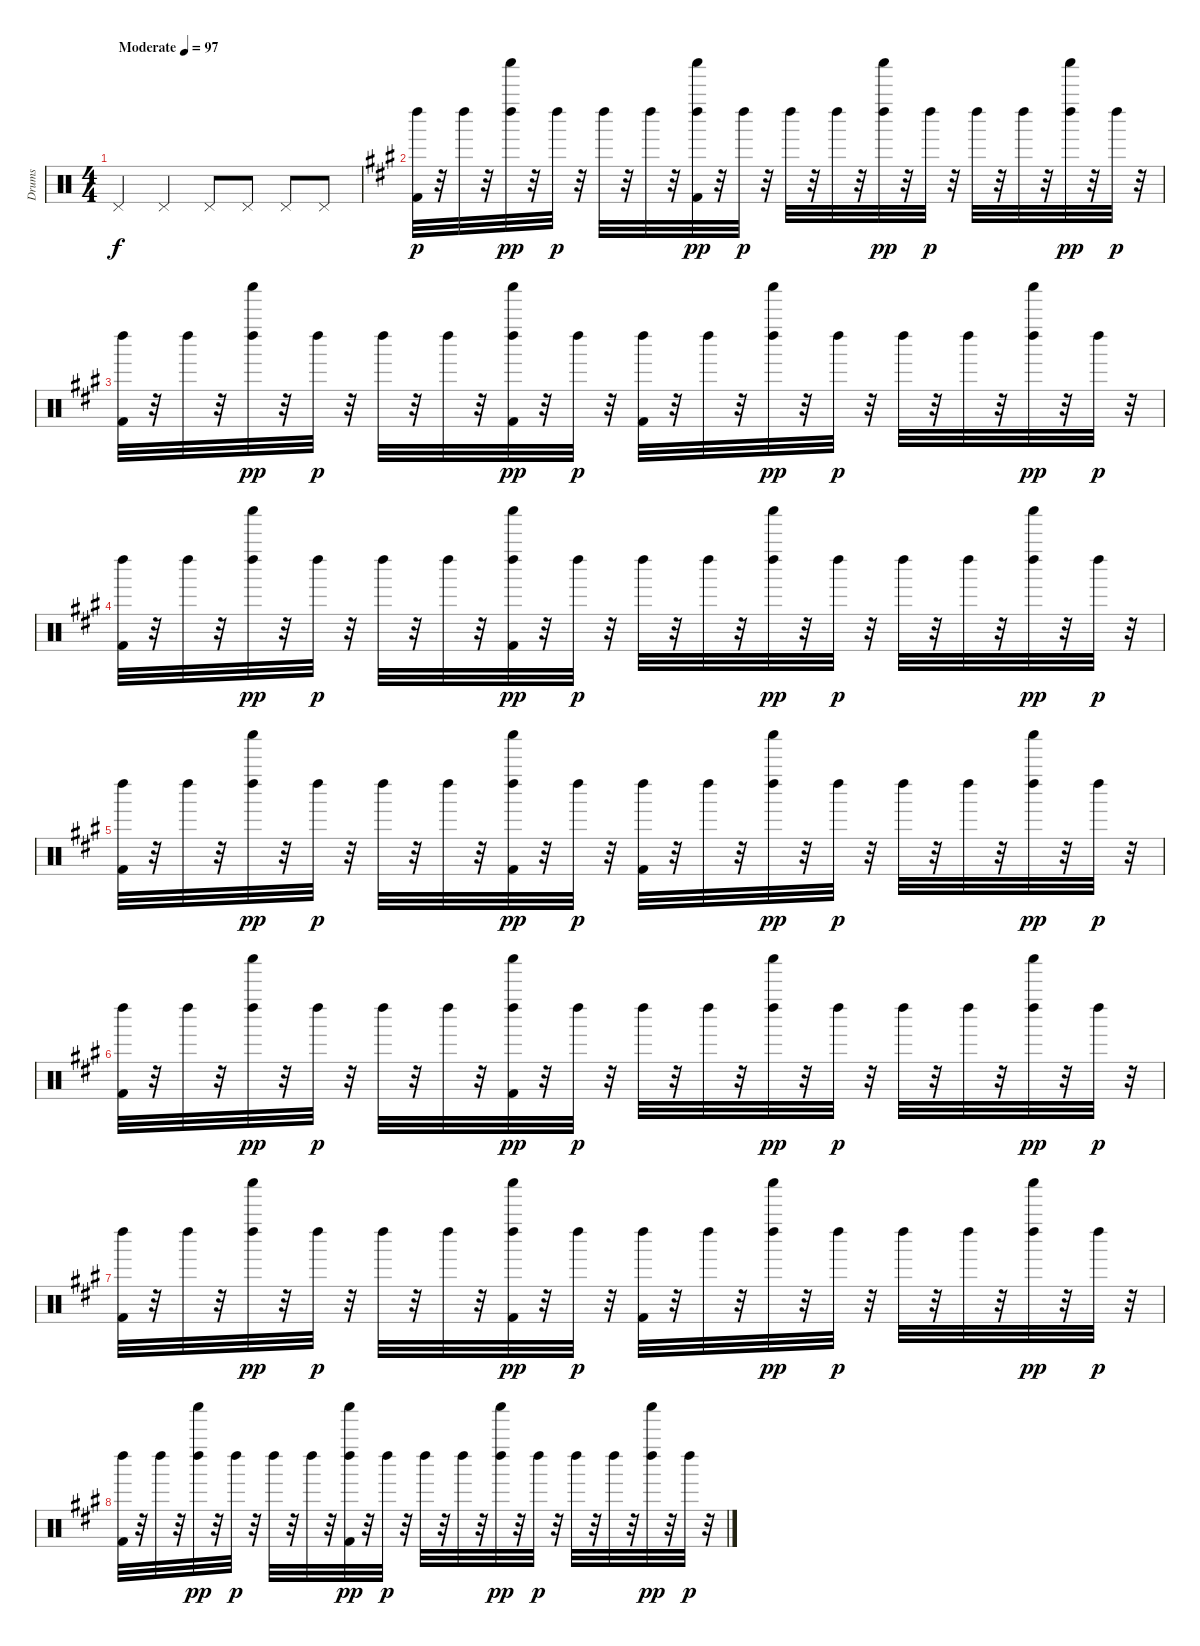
\track ("Drums" "Drums") {instrument percussion}
\staff {score}
\articulation defaults
\ts (4 4)
\tempo (97 "Moderate")
\clef neutral
\ks c "Pedal Hi-Hat (hit)".4{dy f} "Pedal Hi-Hat (hit)".4 "Pedal Hi-Hat (hit)".8 "Pedal Hi-Hat (hit)".8 "Pedal Hi-Hat (hit)".8 "Pedal Hi-Hat (hit)".8
|
\ks a
("Kick (hit) 2" "Left Maraca (hit)").32{dy p} r.32 "Left Maraca (hit)".32 r.32 ("Shaker (hit)" "Left Maraca (hit)").32{dy pp} r.32 "Left Maraca (hit)".32{dy p} r.32 "Left Maraca (hit)".32 r.32 "Left Maraca (hit)".32 r.32 ("Kick (hit) 2" "Shaker (hit)" "Left Maraca (hit)").32{dy pp} r.32 "Left Maraca (hit)".32{dy p} r.32 "Left Maraca (hit)".32 r.32 "Left Maraca (hit)".32 r.32 ("Shaker (hit)" "Left Maraca (hit)").32{dy pp} r.32 "Left Maraca (hit)".32{dy p} r.32 "Left Maraca (hit)".32 r.32 "Left Maraca (hit)".32 r.32 ("Shaker (hit)" "Left Maraca (hit)").32{dy pp} r.32 "Left Maraca (hit)".32{dy p} r.32 |
("Kick (hit) 2" "Left Maraca (hit)").32 r.32 "Left Maraca (hit)".32 r.32 ("Shaker (hit)" "Left Maraca (hit)").32{dy pp} r.32 "Left Maraca (hit)".32{dy p} r.32 "Left Maraca (hit)".32 r.32 "Left Maraca (hit)".32 r.32 ("Kick (hit) 2" "Shaker (hit)" "Left Maraca (hit)").32{dy pp} r.32 "Left Maraca (hit)".32{dy p} r.32 ("Kick (hit) 2" "Left Maraca (hit)").32 r.32 "Left Maraca (hit)".32 r.32 ("Shaker (hit)" "Left Maraca (hit)").32{dy pp} r.32 "Left Maraca (hit)".32{dy p} r.32 "Left Maraca (hit)".32 r.32 "Left Maraca (hit)".32 r.32 ("Shaker (hit)" "Left Maraca (hit)").32{dy pp} r.32 "Left Maraca (hit)".32{dy p} r.32 |
("Kick (hit) 2" "Left Maraca (hit)").32 r.32 "Left Maraca (hit)".32 r.32 ("Shaker (hit)" "Left Maraca (hit)").32{dy pp} r.32 "Left Maraca (hit)".32{dy p} r.32 "Left Maraca (hit)".32 r.32 "Left Maraca (hit)".32 r.32 ("Kick (hit) 2" "Shaker (hit)" "Left Maraca (hit)").32{dy pp} r.32 "Left Maraca (hit)".32{dy p} r.32 "Left Maraca (hit)".32 r.32 "Left Maraca (hit)".32 r.32 ("Shaker (hit)" "Left Maraca (hit)").32{dy pp} r.32 "Left Maraca (hit)".32{dy p} r.32 "Left Maraca (hit)".32 r.32 "Left Maraca (hit)".32 r.32 ("Shaker (hit)" "Left Maraca (hit)").32{dy pp} r.32 "Left Maraca (hit)".32{dy p} r.32 |
("Kick (hit) 2" "Left Maraca (hit)").32 r.32 "Left Maraca (hit)".32 r.32 ("Shaker (hit)" "Left Maraca (hit)").32{dy pp} r.32 "Left Maraca (hit)".32{dy p} r.32 "Left Maraca (hit)".32 r.32 "Left Maraca (hit)".32 r.32 ("Kick (hit) 2" "Shaker (hit)" "Left Maraca (hit)").32{dy pp} r.32 "Left Maraca (hit)".32{dy p} r.32 ("Kick (hit) 2" "Left Maraca (hit)").32 r.32 "Left Maraca (hit)".32 r.32 ("Shaker (hit)" "Left Maraca (hit)").32{dy pp} r.32 "Left Maraca (hit)".32{dy p} r.32 "Left Maraca (hit)".32 r.32 "Left Maraca (hit)".32 r.32 ("Shaker (hit)" "Left Maraca (hit)").32{dy pp} r.32 "Left Maraca (hit)".32{dy p} r.32 |
("Kick (hit) 2" "Left Maraca (hit)").32 r.32 "Left Maraca (hit)".32 r.32 ("Shaker (hit)" "Left Maraca (hit)").32{dy pp} r.32 "Left Maraca (hit)".32{dy p} r.32 "Left Maraca (hit)".32 r.32 "Left Maraca (hit)".32 r.32 ("Kick (hit) 2" "Shaker (hit)" "Left Maraca (hit)").32{dy pp} r.32 "Left Maraca (hit)".32{dy p} r.32 "Left Maraca (hit)".32 r.32 "Left Maraca (hit)".32 r.32 ("Shaker (hit)" "Left Maraca (hit)").32{dy pp} r.32 "Left Maraca (hit)".32{dy p} r.32 "Left Maraca (hit)".32 r.32 "Left Maraca (hit)".32 r.32 ("Shaker (hit)" "Left Maraca (hit)").32{dy pp} r.32 "Left Maraca (hit)".32{dy p} r.32 |
("Kick (hit) 2" "Left Maraca (hit)").32 r.32 "Left Maraca (hit)".32 r.32 ("Shaker (hit)" "Left Maraca (hit)").32{dy pp} r.32 "Left Maraca (hit)".32{dy p} r.32 "Left Maraca (hit)".32 r.32 "Left Maraca (hit)".32 r.32 ("Kick (hit) 2" "Shaker (hit)" "Left Maraca (hit)").32{dy pp} r.32 "Left Maraca (hit)".32{dy p} r.32 ("Kick (hit) 2" "Left Maraca (hit)").32 r.32 "Left Maraca (hit)".32 r.32 ("Shaker (hit)" "Left Maraca (hit)").32{dy pp} r.32 "Left Maraca (hit)".32{dy p} r.32 "Left Maraca (hit)".32 r.32 "Left Maraca (hit)".32 r.32 ("Shaker (hit)" "Left Maraca (hit)").32{dy pp} r.32 "Left Maraca (hit)".32{dy p} r.32 |
("Kick (hit) 2" "Left Maraca (hit)").32 r.32 "Left Maraca (hit)".32 r.32 ("Shaker (hit)" "Left Maraca (hit)").32{dy pp} r.32 "Left Maraca (hit)".32{dy p} r.32 "Left Maraca (hit)".32 r.32 "Left Maraca (hit)".32 r.32 ("Kick (hit) 2" "Shaker (hit)" "Left Maraca (hit)").32{dy pp} r.32 "Left Maraca (hit)".32{dy p} r.32 "Left Maraca (hit)".32 r.32 "Left Maraca (hit)".32 r.32 ("Shaker (hit)" "Left Maraca (hit)").32{dy pp} r.32 "Left Maraca (hit)".32{dy p} r.32 "Left Maraca (hit)".32 r.32 "Left Maraca (hit)".32 r.32 ("Shaker (hit)" "Left Maraca (hit)").32{dy pp} r.32 "Left Maraca (hit)".32{dy p} r.32
